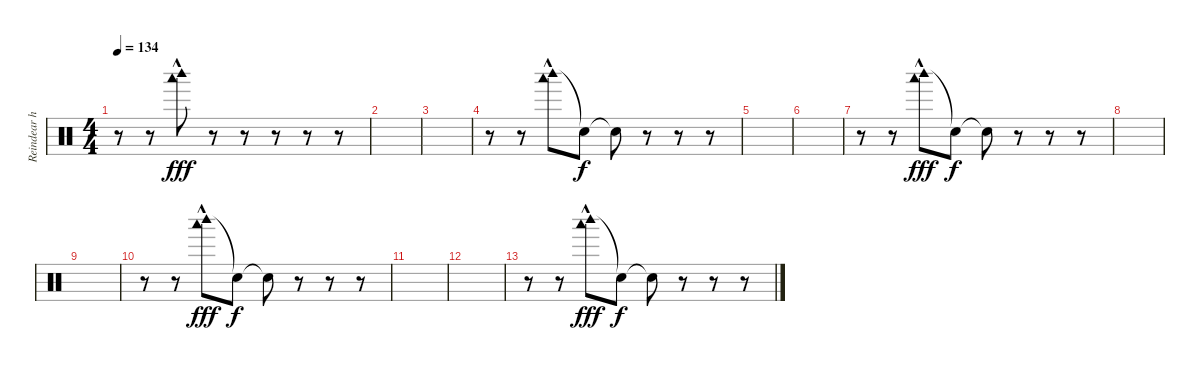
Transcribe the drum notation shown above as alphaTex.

\track ("Reindear horn" "Reindear h") {instrument percussion}
\staff {score}
\articulation defaults
\ts (4 4)
\tempo 134
\clef neutral
\ks c
r.8{dy fff} r.8 ("Woodblock high (hit)" "Woodblock low (hit)"{hac}).8 r.8 r.8 r.8 r.8 r.8 |
|
|
r.8 r.8 ("Woodblock high (hit)" "Woodblock low (hit)"{hac}).8 "Snare (hit)"{t}.8{dy f} "Snare (hit)"{t}.8 r.8 r.8 r.8 |
|
|
r.8 r.8 ("Woodblock high (hit)" "Woodblock low (hit)"{hac}).8{dy fff} "Snare (hit)"{t}.8{dy f} "Snare (hit)"{t}.8 r.8 r.8 r.8 |
|
|
r.8 r.8 ("Woodblock high (hit)" "Woodblock low (hit)"{hac}).8{dy fff} "Snare (hit)"{t}.8{dy f} "Snare (hit)"{t}.8 r.8 r.8 r.8 |
|
|
r.8 r.8 ("Woodblock high (hit)" "Woodblock low (hit)"{hac}).8{dy fff} "Snare (hit)"{t}.8{dy f} "Snare (hit)"{t}.8 r.8 r.8 r.8
